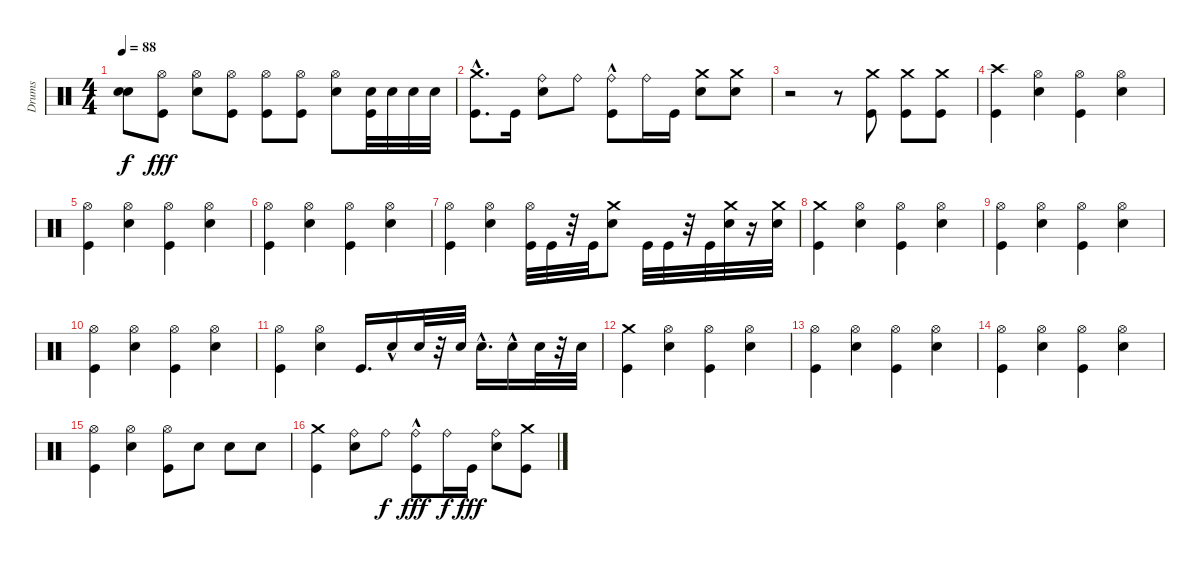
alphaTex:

\track ("Drums" "Drums") {instrument percussion}
\staff {score}
\articulation defaults
\ts (4 4)
\tempo 88
\clef neutral
\ks c
("Snare (hit)"{t} "Snare (hit)"{t}).8{dy f} ("Kick (hit)" "Hi-Hat (open)").8{dy fff} ("Electric Snare (hit)" "Hi-Hat (open)").8 ("Kick (hit)" "Hi-Hat (open)").8 ("Kick (hit)" "Hi-Hat (open)").8 ("Kick (hit)" "Hi-Hat (open)").8 ("Electric Snare (hit)" "Hi-Hat (open)").8 ("Kick (hit)" "Electric Snare (hit)").32 "Electric Snare (hit)".32 "Electric Snare (hit)".32 "Electric Snare (hit)".32 |
("Kick (hit)"{hac} "Crash medium (hit)").8{d} "Kick (hit)".16 ("Electric Snare (hit)" "Ride (bell)").8 "Ride (bell)".8 ("Ride (bell)" "Kick (hit)"{hac}).8 "Ride (bell)".16 "Kick (hit)".16 ("Electric Snare (hit)" "Crash medium (hit)").8 ("Electric Snare (hit)" "Crash medium (hit)").8 |
r.2 r.8 ("Crash medium (hit)" "Kick (hit)").8 ("Crash medium (hit)" "Kick (hit)").8 ("Crash medium (hit)" "Kick (hit)").8 |
("Crash high (hit)" "Kick (hit)").4 ("Electric Snare (hit)" "Hi-Hat (open)").4 ("Kick (hit)" "Hi-Hat (open)").4 ("Electric Snare (hit)" "Hi-Hat (open)").4 |
("Hi-Hat (open)" "Kick (hit)").4 ("Hi-Hat (open)" "Electric Snare (hit)").4 ("Hi-Hat (open)" "Kick (hit)").4 ("Hi-Hat (open)" "Electric Snare (hit)").4 |
("Kick (hit)" "Hi-Hat (open)").4 ("Electric Snare (hit)" "Hi-Hat (open)").4 ("Kick (hit)" "Hi-Hat (open)").4 ("Electric Snare (hit)" "Hi-Hat (open)").4 |
("Kick (hit)" "Hi-Hat (open)").4 ("Electric Snare (hit)" "Hi-Hat (open)").4 ("Hi-Hat (open)" "Kick (hit)").32 "Kick (hit)".32 r.32 "Kick (hit)".32 ("Electric Snare (hit)" "Crash medium (hit)").8 "Kick (hit)".32 "Kick (hit)".32 r.32 "Kick (hit)".32 ("Crash medium (hit)" "Electric Snare (hit)").32 r.16 ("Electric Snare (hit)" "Crash medium (hit)").32 |
("Kick (hit)" "Crash medium (hit)").4 ("Hi-Hat (open)" "Electric Snare (hit)").4 ("Kick (hit)" "Hi-Hat (open)").4 ("Electric Snare (hit)" "Hi-Hat (open)").4 |
("Kick (hit)" "Hi-Hat (open)").4 ("Hi-Hat (open)" "Electric Snare (hit)").4 ("Kick (hit)" "Hi-Hat (open)").4 ("Electric Snare (hit)" "Hi-Hat (open)").4 |
("Kick (hit)" "Hi-Hat (open)").4 ("Hi-Hat (open)" "Electric Snare (hit)").4 ("Kick (hit)" "Hi-Hat (open)").4 ("Electric Snare (hit)" "Hi-Hat (open)").4 |
("Hi-Hat (open)" "Kick (hit)").4 ("Hi-Hat (open)" "Electric Snare (hit)").4 "Kick (hit)".16{d} "Electric Snare (hit)"{hac}.16 "Electric Snare (hit)".32 r.32 "Electric Snare (hit)".32 "Electric Snare (hit)"{hac}.16{d} "Electric Snare (hit)"{hac}.16 "Electric Snare (hit)".32 r.32 "Electric Snare (hit)".32 |
("Kick (hit)" "Crash medium (hit)").4 ("Hi-Hat (open)" "Electric Snare (hit)").4 ("Kick (hit)" "Hi-Hat (open)").4 ("Electric Snare (hit)" "Hi-Hat (open)").4 |
("Kick (hit)" "Hi-Hat (open)").4 ("Hi-Hat (open)" "Electric Snare (hit)").4 ("Kick (hit)" "Hi-Hat (open)").4 ("Electric Snare (hit)" "Hi-Hat (open)").4 |
("Kick (hit)" "Hi-Hat (open)").4 ("Hi-Hat (open)" "Electric Snare (hit)").4 ("Kick (hit)" "Hi-Hat (open)").4 ("Electric Snare (hit)" "Hi-Hat (open)").4 |
("Hi-Hat (open)" "Kick (hit)").4 ("Hi-Hat (open)" "Electric Snare (hit)").4 ("Kick (hit)" "Hi-Hat (open)").8 "Electric Snare (hit)".8 "Electric Snare (hit)".8 "Electric Snare (hit)".8 |
("Kick (hit)" "Crash medium (hit)").4 ("Electric Snare (hit)" "Ride (bell)").8 "Ride (bell)".8{dy f} ("Ride (bell)" "Kick (hit)"{hac}).8{dy fff} "Ride (bell)".16{dy f} "Kick (hit)".16{dy fff} ("Ride (bell)" "Electric Snare (hit)").8 ("Crash medium (hit)" "Kick (hit)").8
